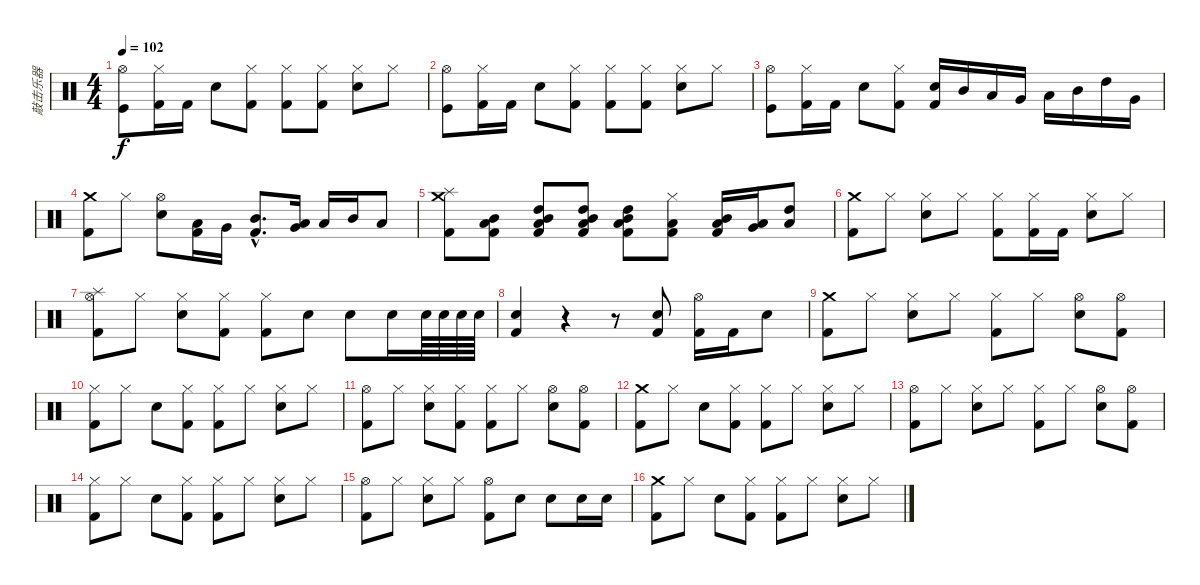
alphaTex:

\track ("敲击乐器" "敲击乐器") {instrument percussion}
\staff {score}
\articulation defaults
\ts (4 4)
\tempo 102
\clef neutral
\ks c
("Hi-Hat (open)" "Kick (hit)").8{dy f} ("Hi-Hat (closed)" "Kick (hit) 2").16 "Kick (hit) 2".16 "Electric Snare (hit)".8 ("Hi-Hat (closed)" "Kick (hit) 2").8 ("Hi-Hat (closed)" "Kick (hit) 2").8 ("Hi-Hat (closed)" "Kick (hit) 2").8 ("Hi-Hat (closed)" "Electric Snare (hit)").8 "Hi-Hat (closed)".8 |
("Hi-Hat (open)" "Kick (hit)").8 ("Hi-Hat (closed)" "Kick (hit) 2").16 "Kick (hit) 2".16 "Electric Snare (hit)".8 ("Hi-Hat (closed)" "Kick (hit) 2").8 ("Hi-Hat (closed)" "Kick (hit) 2").8 ("Hi-Hat (closed)" "Kick (hit) 2").8 ("Hi-Hat (closed)" "Electric Snare (hit)").8 "Hi-Hat (closed)".8 |
("Hi-Hat (open)" "Kick (hit)").8 ("Hi-Hat (closed)" "Kick (hit) 2").16 "Kick (hit) 2".16 "Electric Snare (hit)".8 ("Hi-Hat (closed)" "Kick (hit) 2").8 ("Electric Snare (hit)" "Kick (hit) 2").16 "Mid Tom (hit)".16 "Low Tom (hit)".16 "Very Low Tom (hit)".16 "Low Tom (hit)".16 "Mid Tom (hit)".16 "High Tom (hit)".16 "Very Low Tom (hit)".16 |
("Crash medium (hit)" "Kick (hit) 2").8 "Hi-Hat (closed)".8 ("Hi-Hat (open)" "Electric Snare (hit)").8 ("Low Tom (hit)" "Kick (hit) 2").16 "Very Low Tom (hit)".16 ("Mid Tom (hit)"{hac} "Kick (hit) 2"{hac}).8{d} ("Very Low Tom (hit)" "Low Tom (hit)").16 "Low Tom (hit)".16 "Mid Tom (hit)".16 "Low Floor Tom (hit)".8 |
("Splash (hit)" "Crash medium (hit)" "Kick (hit) 2").8 ("Mid Tom (hit)" "Low Tom (hit)" "Kick (hit) 2").8 ("Mid Tom (hit)" "High Tom (hit)" "Low Tom (hit)" "Kick (hit) 2").8 ("Mid Tom (hit)" "High Tom (hit)" "Low Tom (hit)" "Kick (hit) 2").8 ("Mid Tom (hit)" "High Tom (hit)" "Low Tom (hit)" "Kick (hit) 2").8 ("Hi-Hat (closed)" "Low Tom (hit)" "Kick (hit) 2").8 ("Mid Tom (hit)" "Low Tom (hit)" "Kick (hit) 2").16 ("Low Tom (hit)" "Very Low Tom (hit)").16 ("High Tom (hit)" "Low Floor Tom (hit)").8 |
("Crash medium (hit)" "Kick (hit) 2").8 "Hi-Hat (closed)".8 ("Hi-Hat (closed)" "Electric Snare (hit)").8 "Hi-Hat (closed)".8 ("Hi-Hat (closed)" "Kick (hit) 2").8 ("Hi-Hat (closed)" "Kick (hit) 2").16 "Kick (hit) 2".16 ("Hi-Hat (closed)" "Electric Snare (hit)").8 "Hi-Hat (closed)".8 |
("Hi-Hat (open)" "Splash (hit)" "Kick (hit) 2").8 "Hi-Hat (closed)".8 ("Hi-Hat (closed)" "Electric Snare (hit)").8 ("Hi-Hat (closed)" "Kick (hit) 2").8 ("Hi-Hat (closed)" "Kick (hit) 2").8 "Electric Snare (hit)".8 "Electric Snare (hit)".8 "Electric Snare (hit)".16 "Electric Snare (hit)".64 "Electric Snare (hit)".64 "Electric Snare (hit)".64 "Electric Snare (hit)".64 |
("Electric Snare (hit)" "Kick (hit) 2").4 r.4 r.8 ("Electric Snare (hit)" "Kick (hit) 2").8 ("Hi-Hat (open)" "Kick (hit) 2").16 "Kick (hit) 2".16 "Electric Snare (hit)".8 |
("Crash medium (hit)" "Kick (hit) 2").8 "Hi-Hat (closed)".8 ("Hi-Hat (closed)" "Electric Snare (hit)").8 "Hi-Hat (closed)".8 ("Hi-Hat (closed)" "Kick (hit) 2").8 "Hi-Hat (closed)".8 ("Hi-Hat (open)" "Electric Snare (hit)").8 ("Hi-Hat (open)" "Kick (hit) 2").8 |
("Hi-Hat (closed)" "Kick (hit) 2").8 "Hi-Hat (closed)".8 "Electric Snare (hit)".8 ("Hi-Hat (closed)" "Kick (hit) 2").8 ("Hi-Hat (closed)" "Kick (hit) 2").8 "Hi-Hat (closed)".8 ("Hi-Hat (closed)" "Electric Snare (hit)").8 "Hi-Hat (closed)".8 |
("Hi-Hat (open)" "Kick (hit) 2").8 "Hi-Hat (closed)".8 ("Hi-Hat (closed)" "Electric Snare (hit)").8 ("Hi-Hat (closed)" "Kick (hit) 2").8 ("Hi-Hat (closed)" "Kick (hit) 2").8 "Hi-Hat (closed)".8 ("Hi-Hat (open)" "Electric Snare (hit)").8 ("Hi-Hat (open)" "Kick (hit) 2").8 |
("Crash medium (hit)" "Kick (hit) 2").8 "Hi-Hat (closed)".8 "Electric Snare (hit)".8 ("Hi-Hat (closed)" "Kick (hit) 2").8 ("Hi-Hat (closed)" "Kick (hit) 2").8 "Hi-Hat (closed)".8 ("Hi-Hat (closed)" "Electric Snare (hit)").8 "Hi-Hat (closed)".8 |
("Hi-Hat (open)" "Kick (hit) 2").8 "Hi-Hat (closed)".8 ("Hi-Hat (closed)" "Electric Snare (hit)").8 "Hi-Hat (closed)".8 ("Hi-Hat (closed)" "Kick (hit) 2").8 "Hi-Hat (closed)".8 ("Hi-Hat (open)" "Electric Snare (hit)").8 ("Hi-Hat (open)" "Kick (hit) 2").8 |
("Hi-Hat (closed)" "Kick (hit) 2").8 "Hi-Hat (closed)".8 "Electric Snare (hit)".8 ("Hi-Hat (closed)" "Kick (hit) 2").8 ("Hi-Hat (closed)" "Kick (hit) 2").8 "Hi-Hat (closed)".8 ("Hi-Hat (closed)" "Electric Snare (hit)").8 "Hi-Hat (closed)".8 |
("Hi-Hat (open)" "Kick (hit) 2").8 "Hi-Hat (closed)".8 ("Hi-Hat (closed)" "Electric Snare (hit)").8 "Hi-Hat (closed)".8 ("Hi-Hat (open)" "Kick (hit) 2").8 "Electric Snare (hit)".8 "Electric Snare (hit)".8 "Electric Snare (hit)".16 "Electric Snare (hit)".16 |
("Crash medium (hit)" "Kick (hit) 2").8 "Hi-Hat (closed)".8 "Electric Snare (hit)".8 ("Hi-Hat (closed)" "Kick (hit) 2").8 ("Hi-Hat (closed)" "Kick (hit) 2").8 "Hi-Hat (closed)".8 ("Hi-Hat (closed)" "Electric Snare (hit)").8 "Hi-Hat (closed)".8
